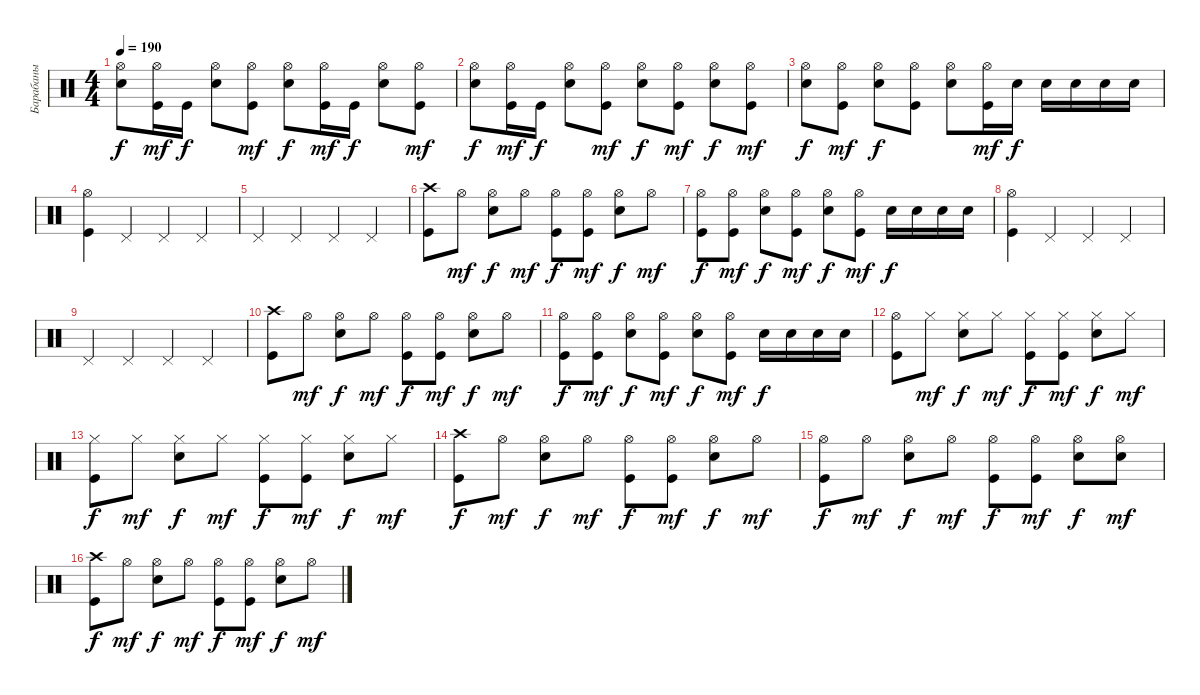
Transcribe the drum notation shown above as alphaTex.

\track ("Барабаны" "Барабаны") {instrument percussion}
\staff {score}
\articulation defaults
\ts (4 4)
\tempo 190
\clef neutral
\ks c
("Hi-Hat (open)" "Electric Snare (hit)").8{dy f} ("Hi-Hat (open)" "Kick (hit)").16{dy mf} "Kick (hit)".16{dy f} ("Hi-Hat (open)" "Electric Snare (hit)").8 ("Hi-Hat (open)" "Kick (hit)").8{dy mf} ("Hi-Hat (open)" "Electric Snare (hit)").8{dy f} ("Hi-Hat (open)" "Kick (hit)").16{dy mf} "Kick (hit)".16{dy f} ("Hi-Hat (open)" "Electric Snare (hit)").8 ("Hi-Hat (open)" "Kick (hit)").8{dy mf} |
("Hi-Hat (open)" "Electric Snare (hit)").8{dy f} ("Hi-Hat (open)" "Kick (hit)").16{dy mf} "Kick (hit)".16{dy f} ("Hi-Hat (open)" "Electric Snare (hit)").8 ("Hi-Hat (open)" "Kick (hit)").8{dy mf} ("Hi-Hat (open)" "Electric Snare (hit)").8{dy f} ("Hi-Hat (open)" "Kick (hit)").8{dy mf} ("Hi-Hat (open)" "Electric Snare (hit)").8{dy f} ("Hi-Hat (open)" "Kick (hit)").8{dy mf} |
("Hi-Hat (open)" "Electric Snare (hit)").8{dy f} ("Hi-Hat (open)" "Kick (hit)").8{dy mf} ("Hi-Hat (open)" "Electric Snare (hit)").8{dy f} ("Hi-Hat (open)" "Kick (hit)").8 ("Hi-Hat (open)" "Electric Snare (hit)").8 ("Hi-Hat (open)" "Kick (hit)").16{dy mf} "Electric Snare (hit)".16{dy f} "Electric Snare (hit)".16 "Electric Snare (hit)".16 "Electric Snare (hit)".16 "Electric Snare (hit)".16 |
("Hi-Hat (open)" "Kick (hit)").4 "Pedal Hi-Hat (hit)".4 "Pedal Hi-Hat (hit)".4 "Pedal Hi-Hat (hit)".4 |
"Pedal Hi-Hat (hit)".4 "Pedal Hi-Hat (hit)".4 "Pedal Hi-Hat (hit)".4 "Pedal Hi-Hat (hit)".4 |
("Crash high (hit)" "Kick (hit)").8 "Hi-Hat (open)".8{dy mf} ("Hi-Hat (open)" "Electric Snare (hit)").8{dy f} "Hi-Hat (open)".8{dy mf} ("Hi-Hat (open)" "Kick (hit)").8{dy f} ("Hi-Hat (open)" "Kick (hit)").8{dy mf} ("Hi-Hat (open)" "Electric Snare (hit)").8{dy f} "Hi-Hat (open)".8{dy mf} |
("Hi-Hat (open)" "Kick (hit)").8{dy f} ("Hi-Hat (open)" "Kick (hit)").8{dy mf} ("Hi-Hat (open)" "Electric Snare (hit)").8{dy f} ("Hi-Hat (open)" "Kick (hit)").8{dy mf} ("Hi-Hat (open)" "Electric Snare (hit)").8{dy f} ("Hi-Hat (open)" "Kick (hit)").8{dy mf} "Electric Snare (hit)".16{dy f} "Electric Snare (hit)".16 "Electric Snare (hit)".16 "Electric Snare (hit)".16 |
("Hi-Hat (open)" "Kick (hit)").4 "Pedal Hi-Hat (hit)".4 "Pedal Hi-Hat (hit)".4 "Pedal Hi-Hat (hit)".4 |
"Pedal Hi-Hat (hit)".4 "Pedal Hi-Hat (hit)".4 "Pedal Hi-Hat (hit)".4 "Pedal Hi-Hat (hit)".4 |
("Crash high (hit)" "Kick (hit)").8 "Hi-Hat (open)".8{dy mf} ("Hi-Hat (open)" "Electric Snare (hit)").8{dy f} "Hi-Hat (open)".8{dy mf} ("Hi-Hat (open)" "Kick (hit)").8{dy f} ("Hi-Hat (open)" "Kick (hit)").8{dy mf} ("Hi-Hat (open)" "Electric Snare (hit)").8{dy f} "Hi-Hat (open)".8{dy mf} |
("Hi-Hat (open)" "Kick (hit)").8{dy f} ("Hi-Hat (open)" "Kick (hit)").8{dy mf} ("Hi-Hat (open)" "Electric Snare (hit)").8{dy f} ("Hi-Hat (open)" "Kick (hit)").8{dy mf} ("Hi-Hat (open)" "Electric Snare (hit)").8{dy f} ("Hi-Hat (open)" "Kick (hit)").8{dy mf} "Electric Snare (hit)".16{dy f} "Electric Snare (hit)".16 "Electric Snare (hit)".16 "Electric Snare (hit)".16 |
("Hi-Hat (open)" "Kick (hit)").8 "Hi-Hat (closed)".8{dy mf} ("Hi-Hat (closed)" "Electric Snare (hit)").8{dy f} "Hi-Hat (closed)".8{dy mf} ("Hi-Hat (closed)" "Kick (hit)").8{dy f} ("Hi-Hat (closed)" "Kick (hit)").8{dy mf} ("Hi-Hat (closed)" "Electric Snare (hit)").8{dy f} "Hi-Hat (closed)".8{dy mf} |
("Hi-Hat (closed)" "Kick (hit)").8{dy f} "Hi-Hat (closed)".8{dy mf} ("Hi-Hat (closed)" "Electric Snare (hit)").8{dy f} "Hi-Hat (closed)".8{dy mf} ("Hi-Hat (closed)" "Kick (hit)").8{dy f} ("Hi-Hat (closed)" "Kick (hit)").8{dy mf} ("Hi-Hat (closed)" "Electric Snare (hit)").8{dy f} "Hi-Hat (closed)".8{dy mf} |
("Crash high (hit)" "Kick (hit)").8{dy f} "Hi-Hat (open)".8{dy mf} ("Hi-Hat (open)" "Electric Snare (hit)").8{dy f} "Hi-Hat (open)".8{dy mf} ("Hi-Hat (open)" "Kick (hit)").8{dy f} ("Hi-Hat (open)" "Kick (hit)").8{dy mf} ("Hi-Hat (open)" "Electric Snare (hit)").8{dy f} "Hi-Hat (open)".8{dy mf} |
("Hi-Hat (open)" "Kick (hit)").8{dy f} "Hi-Hat (open)".8{dy mf} ("Hi-Hat (open)" "Electric Snare (hit)").8{dy f} "Hi-Hat (open)".8{dy mf} ("Hi-Hat (open)" "Kick (hit)").8{dy f} ("Hi-Hat (open)" "Kick (hit)").8{dy mf} ("Hi-Hat (open)" "Electric Snare (hit)").8{dy f} ("Hi-Hat (open)" "Electric Snare (hit)").8{dy mf} |
("Crash high (hit)" "Kick (hit)").8{dy f} "Hi-Hat (open)".8{dy mf} ("Hi-Hat (open)" "Electric Snare (hit)").8{dy f} "Hi-Hat (open)".8{dy mf} ("Hi-Hat (open)" "Kick (hit)").8{dy f} ("Hi-Hat (open)" "Kick (hit)").8{dy mf} ("Hi-Hat (open)" "Electric Snare (hit)").8{dy f} "Hi-Hat (open)".8{dy mf}
